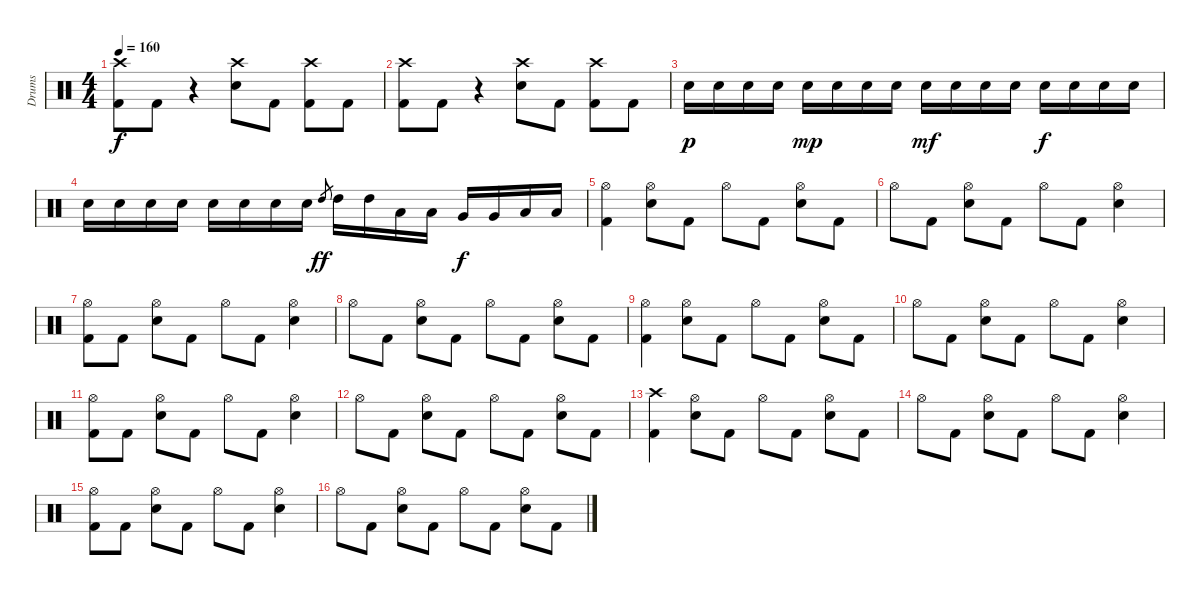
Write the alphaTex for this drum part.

\track ("Drums" "Drums") {instrument percussion}
\staff {score}
\articulation defaults
\ts (4 4)
\tempo 160
\clef neutral
\ks c
("Crash high (hit)" "Kick (hit) 2").8{dy f} "Kick (hit) 2".8 r.4 ("Crash high (hit)" "Electric Snare (hit)").8 "Kick (hit) 2".8 ("Crash high (hit)" "Kick (hit) 2").8 "Kick (hit) 2".8 |
("Crash high (hit)" "Kick (hit) 2").8 "Kick (hit) 2".8 r.4 ("Crash high (hit)" "Electric Snare (hit)").8 "Kick (hit) 2".8 ("Crash high (hit)" "Kick (hit) 2").8 "Kick (hit) 2".8 |
"Electric Snare (hit)".16{dy p} "Electric Snare (hit)".16 "Electric Snare (hit)".16 "Electric Snare (hit)".16 "Electric Snare (hit)".16{dy mp} "Electric Snare (hit)".16 "Electric Snare (hit)".16 "Electric Snare (hit)".16 "Electric Snare (hit)".16{dy mf} "Electric Snare (hit)".16 "Electric Snare (hit)".16 "Electric Snare (hit)".16 "Electric Snare (hit)".16{dy f} "Electric Snare (hit)".16 "Electric Snare (hit)".16 "Electric Snare (hit)".16 |
"Electric Snare (hit)".16 "Electric Snare (hit)".16 "Electric Snare (hit)".16 "Electric Snare (hit)".16 "Electric Snare (hit)".16 "Electric Snare (hit)".16 "Electric Snare (hit)".16 "Electric Snare (hit)".16 "High Tom (hit)".8{gr dy ff} "High Tom (hit)".16 "High Tom (hit)".16 "Low Tom (hit)".16 "Low Tom (hit)".16 "Very Low Tom (hit)".16{dy f} "Very Low Tom (hit)".16 "Low Floor Tom (hit)".16 "Low Floor Tom (hit)".16 |
\section ("" "")
("Hi-Hat (open)" "Kick (hit) 2").4 ("Hi-Hat (open)" "Electric Snare (hit)").8 "Kick (hit) 2".8 "Hi-Hat (open)".8 "Kick (hit) 2".8 ("Hi-Hat (open)" "Electric Snare (hit)").8 "Kick (hit) 2".8 |
"Hi-Hat (open)".8 "Kick (hit) 2".8 ("Hi-Hat (open)" "Electric Snare (hit)").8 "Kick (hit) 2".8 "Hi-Hat (open)".8 "Kick (hit) 2".8 ("Hi-Hat (open)" "Electric Snare (hit)").4 |
("Hi-Hat (open)" "Kick (hit) 2").8 "Kick (hit) 2".8 ("Hi-Hat (open)" "Electric Snare (hit)").8 "Kick (hit) 2".8 "Hi-Hat (open)".8 "Kick (hit) 2".8 ("Hi-Hat (open)" "Electric Snare (hit)").4 |
"Hi-Hat (open)".8 "Kick (hit) 2".8 ("Hi-Hat (open)" "Electric Snare (hit)").8 "Kick (hit) 2".8 "Hi-Hat (open)".8 "Kick (hit) 2".8 ("Hi-Hat (open)" "Electric Snare (hit)").8 "Kick (hit) 2".8 |
("Hi-Hat (open)" "Kick (hit) 2").4 ("Hi-Hat (open)" "Electric Snare (hit)").8 "Kick (hit) 2".8 "Hi-Hat (open)".8 "Kick (hit) 2".8 ("Hi-Hat (open)" "Electric Snare (hit)").8 "Kick (hit) 2".8 |
"Hi-Hat (open)".8 "Kick (hit) 2".8 ("Hi-Hat (open)" "Electric Snare (hit)").8 "Kick (hit) 2".8 "Hi-Hat (open)".8 "Kick (hit) 2".8 ("Hi-Hat (open)" "Electric Snare (hit)").4 |
("Hi-Hat (open)" "Kick (hit) 2").8 "Kick (hit) 2".8 ("Hi-Hat (open)" "Electric Snare (hit)").8 "Kick (hit) 2".8 "Hi-Hat (open)".8 "Kick (hit) 2".8 ("Hi-Hat (open)" "Electric Snare (hit)").4 |
"Hi-Hat (open)".8 "Kick (hit) 2".8 ("Hi-Hat (open)" "Electric Snare (hit)").8 "Kick (hit) 2".8 "Hi-Hat (open)".8 "Kick (hit) 2".8 ("Hi-Hat (open)" "Electric Snare (hit)").8 "Kick (hit) 2".8 |
("Crash high (hit)" "Kick (hit) 2").4 ("Hi-Hat (open)" "Electric Snare (hit)").8 "Kick (hit) 2".8 "Hi-Hat (open)".8 "Kick (hit) 2".8 ("Hi-Hat (open)" "Electric Snare (hit)").8 "Kick (hit) 2".8 |
"Hi-Hat (open)".8 "Kick (hit) 2".8 ("Hi-Hat (open)" "Electric Snare (hit)").8 "Kick (hit) 2".8 "Hi-Hat (open)".8 "Kick (hit) 2".8 ("Hi-Hat (open)" "Electric Snare (hit)").4 |
("Hi-Hat (open)" "Kick (hit) 2").8 "Kick (hit) 2".8 ("Hi-Hat (open)" "Electric Snare (hit)").8 "Kick (hit) 2".8 "Hi-Hat (open)".8 "Kick (hit) 2".8 ("Hi-Hat (open)" "Electric Snare (hit)").4 |
"Hi-Hat (open)".8 "Kick (hit) 2".8 ("Hi-Hat (open)" "Electric Snare (hit)").8 "Kick (hit) 2".8 "Hi-Hat (open)".8 "Kick (hit) 2".8 ("Hi-Hat (open)" "Electric Snare (hit)").8 "Kick (hit) 2".8
